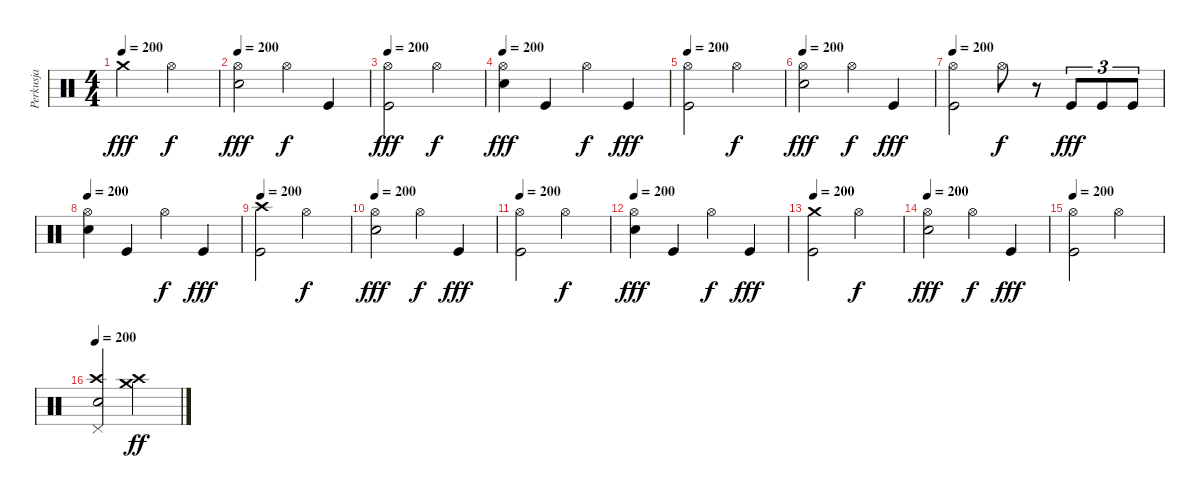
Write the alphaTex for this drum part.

\track ("Perkusja" "Perkusja") {instrument percussion}
\staff {score}
\articulation defaults
\ts (4 4)
\tempo 200
\clef neutral
\ks c "Crash medium (hit)".2{dy fff} "Hi-Hat (open)".2{dy f}
|
\tempo 200
("Hi-Hat (open)" "Snare (hit) 2").2{dy fff} "Hi-Hat (open)".4{dy f} "Kick (hit)".4 |
\tempo 200
("Hi-Hat (open)" "Kick (hit)").2{dy fff} "Hi-Hat (open)".2{dy f} |
\tempo 200
("Hi-Hat (open)" "Snare (hit) 2").4{dy fff} "Kick (hit)".4 "Hi-Hat (open)".4{dy f} "Kick (hit)".4{dy fff} |
\tempo 200
("Hi-Hat (open)" "Kick (hit)").2 "Hi-Hat (open)".2{dy f} |
\tempo 200
("Hi-Hat (open)" "Snare (hit) 2").2{dy fff} "Hi-Hat (open)".4{dy f} "Kick (hit)".4{dy fff} |
\tempo 200
("Hi-Hat (open)" "Kick (hit)").2 "Hi-Hat (open)".8{dy f} r.8 "Kick (hit)".8{tu (3 2) dy fff} "Kick (hit)".8{tu (3 2)} "Kick (hit)".8{tu (3 2)} |
\tempo 200
("Hi-Hat (open)" "Snare (hit) 2").4 "Kick (hit)".4 "Hi-Hat (open)".4{dy f} "Kick (hit)".4{dy fff} |
\tempo 200
("Crash high (hit)" "Kick (hit)").2 "Hi-Hat (open)".2{dy f} |
\tempo 200
("Hi-Hat (open)" "Snare (hit) 2").2{dy fff} "Hi-Hat (open)".4{dy f} "Kick (hit)".4{dy fff} |
\tempo 200
("Hi-Hat (open)" "Kick (hit)").2 "Hi-Hat (open)".2{dy f} |
\tempo 200
("Hi-Hat (open)" "Snare (hit) 2").4{dy fff} "Kick (hit)".4 "Hi-Hat (open)".4{dy f} "Kick (hit)".4{dy fff} |
\tempo 200
("Crash medium (hit)" "Kick (hit)").2 "Hi-Hat (open)".2{dy f} |
\tempo 200
("Hi-Hat (open)" "Snare (hit) 2").2{dy fff} "Hi-Hat (open)".4{dy f} "Kick (hit)".4{dy fff} |
\tempo 200
("Hi-Hat (open)" "Kick (hit)").2 "Hi-Hat (open)".2 |
\tempo 200
("Crash high (hit)" "Pedal Hi-Hat (hit)" "Snare (hit) 2").2 ("Crash medium (hit)" "Crash high (hit)").2{dy ff}
